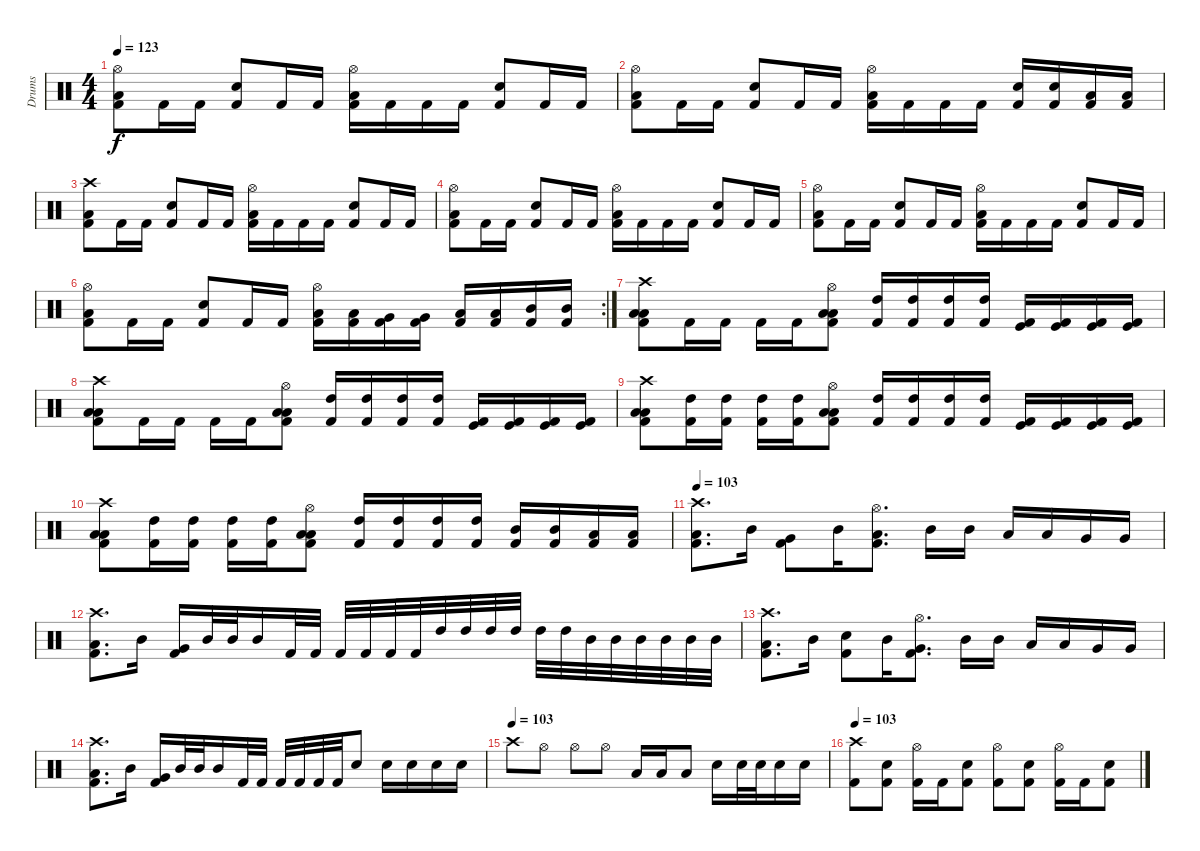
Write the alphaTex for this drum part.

\track ("Drums" "Drums") {instrument percussion}
\staff {score}
\articulation defaults
\ts (4 4)
\tempo 123
\clef neutral
\ks c
("Hi-Hat (open)" "Low Floor Tom (hit)" "Kick (hit) 2").8{dy f} "Kick (hit) 2".16 "Kick (hit) 2".16 ("Snare (hit) 2" "Kick (hit) 2").8 "Kick (hit) 2".16 "Kick (hit) 2".16 ("Hi-Hat (open)" "Low Floor Tom (hit)" "Kick (hit) 2").16 "Kick (hit) 2".16 "Kick (hit) 2".16 "Kick (hit) 2".16 ("Snare (hit) 2" "Kick (hit) 2").8 "Kick (hit) 2".16 "Kick (hit) 2".16 |
("Hi-Hat (open)" "Low Floor Tom (hit)" "Kick (hit) 2").8 "Kick (hit) 2".16 "Kick (hit) 2".16 ("Snare (hit) 2" "Kick (hit) 2").8 "Kick (hit) 2".16 "Kick (hit) 2".16 ("Hi-Hat (open)" "Low Floor Tom (hit)" "Kick (hit) 2").16 "Kick (hit) 2".16 "Kick (hit) 2".16 "Kick (hit) 2".16 ("Snare (hit) 2" "Kick (hit) 2").16 ("Snare (hit) 2" "Kick (hit) 2").16 ("Low Tom (hit)" "Kick (hit) 2").16 ("Low Tom (hit)" "Kick (hit) 2").16 |
("Crash high (hit)" "Low Floor Tom (hit)" "Kick (hit) 2").8 "Kick (hit) 2".16 "Kick (hit) 2".16 ("Snare (hit) 2" "Kick (hit) 2").8 "Kick (hit) 2".16 "Kick (hit) 2".16 ("Hi-Hat (open)" "Low Floor Tom (hit)" "Kick (hit) 2").16 "Kick (hit) 2".16 "Kick (hit) 2".16 "Kick (hit) 2".16 ("Snare (hit) 2" "Kick (hit) 2").8 "Kick (hit) 2".16 "Kick (hit) 2".16 |
("Hi-Hat (open)" "Low Floor Tom (hit)" "Kick (hit) 2").8 "Kick (hit) 2".16 "Kick (hit) 2".16 ("Snare (hit) 2" "Kick (hit) 2").8 "Kick (hit) 2".16 "Kick (hit) 2".16 ("Hi-Hat (open)" "Low Floor Tom (hit)" "Kick (hit) 2").16 "Kick (hit) 2".16 "Kick (hit) 2".16 "Kick (hit) 2".16 ("Snare (hit) 2" "Kick (hit) 2").8 "Kick (hit) 2".16 "Kick (hit) 2".16 |
("Hi-Hat (open)" "Low Floor Tom (hit)" "Kick (hit) 2").8 "Kick (hit) 2".16 "Kick (hit) 2".16 ("Snare (hit) 2" "Kick (hit) 2").8 "Kick (hit) 2".16 "Kick (hit) 2".16 ("Hi-Hat (open)" "Low Floor Tom (hit)" "Kick (hit) 2").16 "Kick (hit) 2".16 "Kick (hit) 2".16 "Kick (hit) 2".16 ("Snare (hit) 2" "Kick (hit) 2").8 "Kick (hit) 2".16 "Kick (hit) 2".16 |
\rc 2
("Hi-Hat (open)" "Low Floor Tom (hit)" "Kick (hit) 2").8 "Kick (hit) 2".16 "Kick (hit) 2".16 ("Snare (hit) 2" "Kick (hit) 2").8 "Kick (hit) 2".16 "Kick (hit) 2".16 ("Hi-Hat (open)" "Low Floor Tom (hit)" "Kick (hit) 2").16 ("Low Floor Tom (hit)" "Kick (hit) 2").16 ("Very Low Tom (hit)" "Kick (hit) 2").16 ("Very Low Tom (hit)" "Kick (hit) 2").16 ("Low Tom (hit)" "Kick (hit) 2").16 ("Low Tom (hit)" "Kick (hit) 2").16 ("Mid Tom (hit)" "Kick (hit) 2").16 ("Mid Tom (hit)" "Kick (hit) 2").16 |
("Crash high (hit)" "Low Floor Tom (hit)" "Low Floor Tom (hit)" "Kick (hit) 2").8 "Kick (hit) 2".16 "Kick (hit) 2".16 "Kick (hit) 2".16 "Kick (hit) 2".16 ("Hi-Hat (open)" "Low Tom (hit)" "Low Tom (hit)" "Kick (hit) 2").8 ("High Tom (hit)" "Kick (hit) 2").16 ("High Tom (hit)" "Kick (hit) 2").16 ("High Tom (hit)" "Kick (hit) 2").16 ("High Tom (hit)" "Kick (hit) 2").16 ("Kick (hit)" "Kick (hit) 2").16 ("Kick (hit)" "Kick (hit) 2").16 ("Kick (hit)" "Kick (hit) 2").16 ("Kick (hit)" "Kick (hit) 2").16 |
("Crash high (hit)" "Low Floor Tom (hit)" "Low Floor Tom (hit)" "Kick (hit) 2").8 "Kick (hit) 2".16 "Kick (hit) 2".16 "Kick (hit) 2".16 "Kick (hit) 2".16 ("Hi-Hat (open)" "Low Tom (hit)" "Low Tom (hit)" "Kick (hit) 2").8 ("High Tom (hit)" "Kick (hit) 2").16 ("High Tom (hit)" "Kick (hit) 2").16 ("High Tom (hit)" "Kick (hit) 2").16 ("High Tom (hit)" "Kick (hit) 2").16 ("Kick (hit)" "Kick (hit) 2").16 ("Kick (hit)" "Kick (hit) 2").16 ("Kick (hit)" "Kick (hit) 2").16 ("Kick (hit)" "Kick (hit) 2").16 |
("Crash high (hit)" "Low Floor Tom (hit)" "Low Floor Tom (hit)" "Kick (hit) 2").8 ("High Tom (hit)" "Kick (hit) 2").16 ("High Tom (hit)" "Kick (hit) 2").16 ("High Tom (hit)" "Kick (hit) 2").16 ("High Tom (hit)" "Kick (hit) 2").16 ("Hi-Hat (open)" "Low Tom (hit)" "Low Tom (hit)" "Kick (hit) 2").8 ("High Tom (hit)" "Kick (hit) 2").16 ("High Tom (hit)" "Kick (hit) 2").16 ("High Tom (hit)" "Kick (hit) 2").16 ("High Tom (hit)" "Kick (hit) 2").16 ("Kick (hit)" "Kick (hit) 2").16 ("Kick (hit)" "Kick (hit) 2").16 ("Kick (hit)" "Kick (hit) 2").16 ("Kick (hit)" "Kick (hit) 2").16 |
("Crash high (hit)" "Low Floor Tom (hit)" "Low Floor Tom (hit)" "Kick (hit) 2").8 ("High Tom (hit)" "Kick (hit) 2").16 ("High Tom (hit)" "Kick (hit) 2").16 ("High Tom (hit)" "Kick (hit) 2").16 ("High Tom (hit)" "Kick (hit) 2").16 ("Hi-Hat (open)" "Low Tom (hit)" "Low Tom (hit)" "Kick (hit) 2").8 ("High Tom (hit)" "Kick (hit) 2").16 ("High Tom (hit)" "Kick (hit) 2").16 ("High Tom (hit)" "Kick (hit) 2").16 ("High Tom (hit)" "Kick (hit) 2").16 ("Mid Tom (hit)" "Kick (hit) 2").16 ("Mid Tom (hit)" "Kick (hit) 2").16 ("Low Tom (hit)" "Kick (hit) 2").16 ("Low Tom (hit)" "Kick (hit) 2").16 |
\tempo 103
("Crash high (hit)" "Low Floor Tom (hit)" "Kick (hit) 2").8{d} "Mid Tom (hit)".16 ("Very Low Tom (hit)" "Kick (hit) 2").8 "Mid Tom (hit)".16 ("Hi-Hat (open)" "Low Floor Tom (hit)" "Kick (hit) 2").8{d} "Mid Tom (hit)".16 "Mid Tom (hit)".16 "Low Tom (hit)".16 "Low Tom (hit)".16 "Very Low Tom (hit)".16 "Very Low Tom (hit)".16 |
("Crash high (hit)" "Low Floor Tom (hit)" "Kick (hit) 2").8{d} "Mid Tom (hit)".16 ("Very Low Tom (hit)" "Kick (hit) 2").16 "Mid Tom (hit)".32 "Mid Tom (hit)".32 "Mid Tom (hit)".16 "Kick (hit) 2".32 "Kick (hit) 2".32 "Kick (hit) 2".32 "Kick (hit) 2".32 "Kick (hit) 2".32 "Kick (hit) 2".32 "High Tom (hit)".32 "High Tom (hit)".32 "High Tom (hit)".32 "High Tom (hit)".32 "High Tom (hit)".32 "High Tom (hit)".32 "Mid Tom (hit)".32 "Mid Tom (hit)".32 "Mid Tom (hit)".32 "Mid Tom (hit)".32 "Mid Tom (hit)".32 "Mid Tom (hit)".32 |
("Crash high (hit)" "Low Floor Tom (hit)" "Kick (hit) 2").8{d} "Mid Tom (hit)".16 ("Snare (hit) 2" "Kick (hit) 2").8 "Mid Tom (hit)".16 ("Hi-Hat (open)" "Very Low Tom (hit)" "Kick (hit) 2").8{d} "Mid Tom (hit)".16 "Mid Tom (hit)".16 "Low Tom (hit)".16 "Low Tom (hit)".16 "Very Low Tom (hit)".16 "Very Low Tom (hit)".16 |
("Crash high (hit)" "Low Floor Tom (hit)" "Kick (hit) 2").8{d} "Mid Tom (hit)".16 ("Very Low Tom (hit)" "Kick (hit) 2").16 "Mid Tom (hit)".32 "Mid Tom (hit)".32 "Mid Tom (hit)".16 "Kick (hit) 2".32 "Kick (hit) 2".32 "Kick (hit) 2".32 "Kick (hit) 2".32 "Kick (hit) 2".32 "Kick (hit) 2".32 "Electric Snare (hit)".8 "Electric Snare (hit)".16 "Electric Snare (hit)".16 "Electric Snare (hit)".16 "Electric Snare (hit)".16 |
\tempo (103)
"Crash high (hit)".8 "Hi-Hat (open)".8 "Hi-Hat (open)".8 "Hi-Hat (open)".8 "Low Tom (hit)".16 "Low Tom (hit)".16 "Low Tom (hit)".8 "Snare (hit) 2".16 "Snare (hit) 2".32 "Snare (hit) 2".32 "Snare (hit) 2".16 "Snare (hit) 2".16 |
\tempo 103
("Crash high (hit)" "Kick (hit) 2").8 ("Snare (hit) 2" "Kick (hit) 2").8 ("Hi-Hat (open)" "Kick (hit) 2").16 "Kick (hit) 2".16 ("Snare (hit) 2" "Kick (hit) 2").8 ("Hi-Hat (open)" "Kick (hit) 2").8 ("Snare (hit) 2" "Kick (hit) 2").8 ("Hi-Hat (open)" "Kick (hit) 2").16 "Kick (hit) 2".16 ("Snare (hit) 2" "Kick (hit) 2").8
